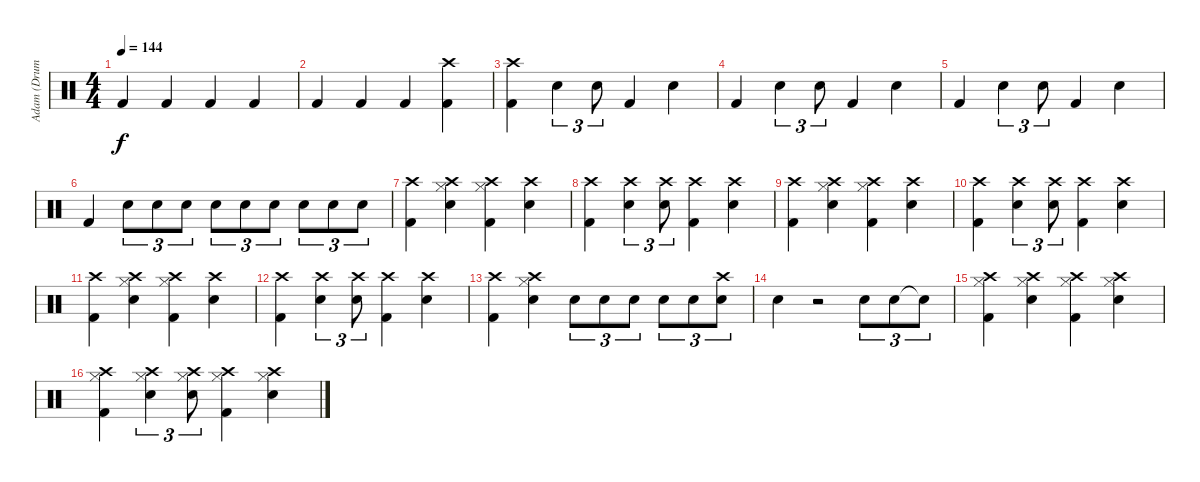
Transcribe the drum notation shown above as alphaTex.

\track ("Adam (Drums)" "Adam (Drum") {instrument percussion}
\staff {score}
\articulation defaults
\ts (4 4)
\tempo 144
\clef neutral
\ks c "Kick (hit) 2".4{dy f} "Kick (hit) 2".4 "Kick (hit) 2".4 "Kick (hit) 2".4
|
"Kick (hit) 2".4 "Kick (hit) 2".4 "Kick (hit) 2".4 ("Crash high (hit)" "Kick (hit) 2").4 |
("Crash high (hit)" "Kick (hit) 2").4 "Electric Snare (hit)".4{tu (3 2)} "Electric Snare (hit)".8{tu (3 2)} "Kick (hit) 2".4 "Electric Snare (hit)".4 |
"Kick (hit) 2".4 "Electric Snare (hit)".4{tu (3 2)} "Electric Snare (hit)".8{tu (3 2)} "Kick (hit) 2".4 "Electric Snare (hit)".4 |
"Kick (hit) 2".4 "Electric Snare (hit)".4{tu (3 2)} "Electric Snare (hit)".8{tu (3 2)} "Kick (hit) 2".4 "Electric Snare (hit)".4 |
"Kick (hit) 2".4 "Electric Snare (hit)".8{tu (3 2)} "Electric Snare (hit)".8{tu (3 2)} "Electric Snare (hit)".8{tu (3 2)} "Electric Snare (hit)".8{tu (3 2)} "Electric Snare (hit)".8{tu (3 2)} "Electric Snare (hit)".8{tu (3 2)} "Electric Snare (hit)".8{tu (3 2)} "Electric Snare (hit)".8{tu (3 2)} "Electric Snare (hit)".8{tu (3 2)} |
("Crash high (hit)" "Kick (hit) 2").4 ("Hi-Hat (closed)" "Crash high (hit)" "Electric Snare (hit)").4 ("Hi-Hat (closed)" "Crash high (hit)" "Kick (hit) 2").4 ("Crash high (hit)" "Electric Snare (hit)").4 |
("Kick (hit) 2" "Crash high (hit)").4 ("Electric Snare (hit)" "Crash high (hit)").4{tu (3 2)} ("Electric Snare (hit)" "Crash high (hit)").8{tu (3 2)} ("Kick (hit) 2" "Crash high (hit)").4 ("Electric Snare (hit)" "Crash high (hit)").4 |
("Crash high (hit)" "Kick (hit) 2").4 ("Hi-Hat (closed)" "Crash high (hit)" "Electric Snare (hit)").4 ("Hi-Hat (closed)" "Crash high (hit)" "Kick (hit) 2").4 ("Crash high (hit)" "Electric Snare (hit)").4 |
("Kick (hit) 2" "Crash high (hit)").4 ("Electric Snare (hit)" "Crash high (hit)").4{tu (3 2)} ("Electric Snare (hit)" "Crash high (hit)").8{tu (3 2)} ("Kick (hit) 2" "Crash high (hit)").4 ("Electric Snare (hit)" "Crash high (hit)").4 |
("Crash high (hit)" "Kick (hit) 2").4 ("Hi-Hat (closed)" "Crash high (hit)" "Electric Snare (hit)").4 ("Hi-Hat (closed)" "Crash high (hit)" "Kick (hit) 2").4 ("Crash high (hit)" "Electric Snare (hit)").4 |
("Kick (hit) 2" "Crash high (hit)").4 ("Electric Snare (hit)" "Crash high (hit)").4{tu (3 2)} ("Electric Snare (hit)" "Crash high (hit)").8{tu (3 2)} ("Kick (hit) 2" "Crash high (hit)").4 ("Electric Snare (hit)" "Crash high (hit)").4 |
("Crash high (hit)" "Kick (hit) 2").4 ("Hi-Hat (closed)" "Crash high (hit)" "Electric Snare (hit)").4 "Electric Snare (hit)".8{tu (3 2)} "Electric Snare (hit)".8{tu (3 2)} "Electric Snare (hit)".8{tu (3 2)} "Electric Snare (hit)".8{tu (3 2)} "Electric Snare (hit)".8{tu (3 2)} ("Crash high (hit)" "Electric Snare (hit)").8{tu (3 2)} |
"Electric Snare (hit)".4 r.2 "Electric Snare (hit)".8{tu (3 2)} "Electric Snare (hit)".8{tu (3 2)} "Snare (hit)"{t}.8{tu (3 2)} |
("Hi-Hat (closed)" "Crash high (hit)" "Kick (hit) 2").4 ("Hi-Hat (closed)" "Crash high (hit)" "Electric Snare (hit)").4 ("Hi-Hat (closed)" "Crash high (hit)" "Kick (hit) 2").4 ("Hi-Hat (closed)" "Crash high (hit)" "Electric Snare (hit)").4 |
("Hi-Hat (closed)" "Kick (hit) 2" "Crash high (hit)").4 ("Hi-Hat (closed)" "Electric Snare (hit)" "Crash high (hit)").4{tu (3 2)} ("Hi-Hat (closed)" "Electric Snare (hit)" "Crash high (hit)").8{tu (3 2)} ("Hi-Hat (closed)" "Kick (hit) 2" "Crash high (hit)").4 ("Hi-Hat (closed)" "Electric Snare (hit)" "Crash high (hit)").4
